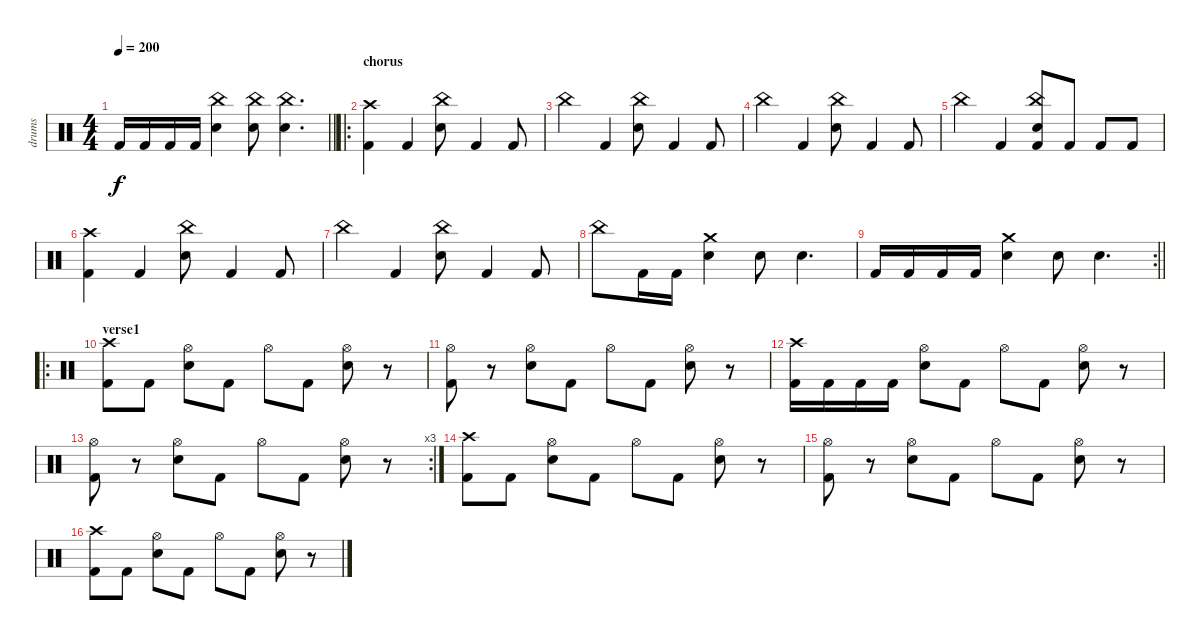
\track ("drums" "drums") {instrument percussion}
\staff {score}
\articulation defaults
\ts (4 4)
\tempo 200
\clef neutral
\barLineRight lightlight
\ks c "Kick (hit) 2".16{dy f} "Kick (hit) 2".16 "Kick (hit) 2".16 "Kick (hit) 2".16
("China (hit)" "Electric Snare (hit)").4 ("China (hit)" "Electric Snare (hit)").8 ("China (hit)" "Electric Snare (hit)").4{d} |
\ro
\section ("" "chorus")
("Crash high (hit)" "Kick (hit) 2").4 "Kick (hit) 2".4 ("China (hit)" "Electric Snare (hit)").8 "Kick (hit) 2".4 "Kick (hit) 2".8 |
"China (hit)".4 "Kick (hit) 2".4 ("China (hit)" "Electric Snare (hit)").8 "Kick (hit) 2".4 "Kick (hit) 2".8 |
"China (hit)".4 "Kick (hit) 2".4 ("China (hit)" "Electric Snare (hit)").8 "Kick (hit) 2".4 "Kick (hit) 2".8 |
"China (hit)".4 "Kick (hit) 2".4 ("China (hit)" "Electric Snare (hit)" "Kick (hit) 2").8 "Kick (hit) 2".8 "Kick (hit) 2".8 "Kick (hit) 2".8 |
("Crash high (hit)" "Kick (hit) 2").4 "Kick (hit) 2".4 ("China (hit)" "Electric Snare (hit)").8 "Kick (hit) 2".4 "Kick (hit) 2".8 |
"China (hit)".4 "Kick (hit) 2".4 ("China (hit)" "Electric Snare (hit)").8 "Kick (hit) 2".4 "Kick (hit) 2".8 |
"China (hit)".8 "Kick (hit) 2".16 "Kick (hit) 2".16 ("Crash medium (hit)" "Electric Snare (hit)").4 "Electric Snare (hit)".8 "Electric Snare (hit)".4{d} |
\rc 2
\barLineRight lightlight "Kick (hit) 2".16 "Kick (hit) 2".16 "Kick (hit) 2".16 "Kick (hit) 2".16
("Crash medium (hit)" "Electric Snare (hit)").4 "Electric Snare (hit)".8 "Electric Snare (hit)".4{d} |
\ro
\section ("" "verse1")
("Crash high (hit)" "Kick (hit) 2").8 "Kick (hit) 2".8 ("Hi-Hat (open)" "Electric Snare (hit)").8 "Kick (hit) 2".8 "Hi-Hat (open)".8 "Kick (hit) 2".8 ("Hi-Hat (open)" "Electric Snare (hit)").8 r.8 |
("Hi-Hat (open)" "Kick (hit) 2").8 r.8 ("Hi-Hat (open)" "Electric Snare (hit)").8 "Kick (hit) 2".8 "Hi-Hat (open)".8 "Kick (hit) 2".8 ("Hi-Hat (open)" "Electric Snare (hit)").8 r.8 |
("Crash high (hit)" "Kick (hit) 2").16 "Kick (hit) 2".16 "Kick (hit) 2".16 "Kick (hit) 2".16 ("Hi-Hat (open)" "Electric Snare (hit)").8 "Kick (hit) 2".8 "Hi-Hat (open)".8 "Kick (hit) 2".8 ("Hi-Hat (open)" "Electric Snare (hit)").8 r.8 |
\rc 3
("Hi-Hat (open)" "Kick (hit) 2").8 r.8 ("Hi-Hat (open)" "Electric Snare (hit)").8 "Kick (hit) 2".8 "Hi-Hat (open)".8 "Kick (hit) 2".8 ("Hi-Hat (open)" "Electric Snare (hit)").8 r.8 |
("Crash high (hit)" "Kick (hit) 2").8 "Kick (hit) 2".8 ("Hi-Hat (open)" "Electric Snare (hit)").8 "Kick (hit) 2".8 "Hi-Hat (open)".8 "Kick (hit) 2".8 ("Hi-Hat (open)" "Electric Snare (hit)").8 r.8 |
("Hi-Hat (open)" "Kick (hit) 2").8 r.8 ("Hi-Hat (open)" "Electric Snare (hit)").8 "Kick (hit) 2".8 "Hi-Hat (open)".8 "Kick (hit) 2".8 ("Hi-Hat (open)" "Electric Snare (hit)").8 r.8 |
("Crash high (hit)" "Kick (hit) 2").8 "Kick (hit) 2".8 ("Hi-Hat (open)" "Electric Snare (hit)").8 "Kick (hit) 2".8 "Hi-Hat (open)".8 "Kick (hit) 2".8 ("Hi-Hat (open)" "Electric Snare (hit)").8 r.8
